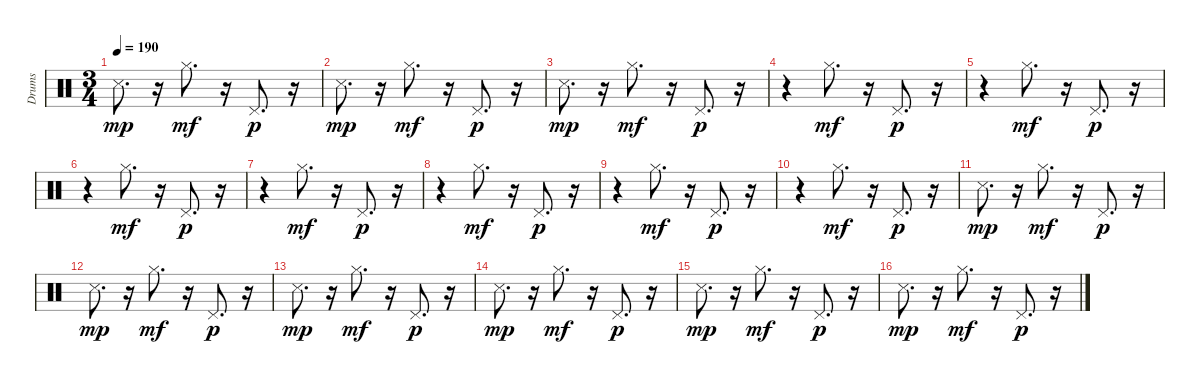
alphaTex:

\track ("Drums" "Drums") {instrument percussion}
\staff {score}
\articulation defaults
\ts (3 4)
\tempo 190
\clef neutral
\ks c "Metronome (hit)".8{d dy mp}
r.16 "Hi-Hat (closed)".8{d dy mf} r.16 "Pedal Hi-Hat (hit)".8{d dy p} r.16 |
"Metronome (hit)".8{d dy mp} r.16 "Hi-Hat (closed)".8{d dy mf} r.16 "Pedal Hi-Hat (hit)".8{d dy p} r.16 |
"Metronome (hit)".8{d dy mp} r.16 "Hi-Hat (closed)".8{d dy mf} r.16 "Pedal Hi-Hat (hit)".8{d dy p} r.16 |
r.4 "Hi-Hat (closed)".8{d dy mf} r.16 "Pedal Hi-Hat (hit)".8{d dy p} r.16 |
r.4 "Hi-Hat (closed)".8{d dy mf} r.16 "Pedal Hi-Hat (hit)".8{d dy p} r.16 |
r.4 "Hi-Hat (closed)".8{d dy mf} r.16 "Pedal Hi-Hat (hit)".8{d dy p} r.16 |
r.4 "Hi-Hat (closed)".8{d dy mf} r.16 "Pedal Hi-Hat (hit)".8{d dy p} r.16 |
r.4 "Hi-Hat (closed)".8{d dy mf} r.16 "Pedal Hi-Hat (hit)".8{d dy p} r.16 |
r.4 "Hi-Hat (closed)".8{d dy mf} r.16 "Pedal Hi-Hat (hit)".8{d dy p} r.16 |
r.4 "Hi-Hat (closed)".8{d dy mf} r.16 "Pedal Hi-Hat (hit)".8{d dy p} r.16 |
"Metronome (hit)".8{d dy mp} r.16 "Hi-Hat (closed)".8{d dy mf} r.16 "Pedal Hi-Hat (hit)".8{d dy p} r.16 |
"Metronome (hit)".8{d dy mp} r.16 "Hi-Hat (closed)".8{d dy mf} r.16 "Pedal Hi-Hat (hit)".8{d dy p} r.16 |
"Metronome (hit)".8{d dy mp} r.16 "Hi-Hat (closed)".8{d dy mf} r.16 "Pedal Hi-Hat (hit)".8{d dy p} r.16 |
"Metronome (hit)".8{d dy mp} r.16 "Hi-Hat (closed)".8{d dy mf} r.16 "Pedal Hi-Hat (hit)".8{d dy p} r.16 |
"Metronome (hit)".8{d dy mp} r.16 "Hi-Hat (closed)".8{d dy mf} r.16 "Pedal Hi-Hat (hit)".8{d dy p} r.16 |
"Metronome (hit)".8{d dy mp} r.16 "Hi-Hat (closed)".8{d dy mf} r.16 "Pedal Hi-Hat (hit)".8{d dy p} r.16
